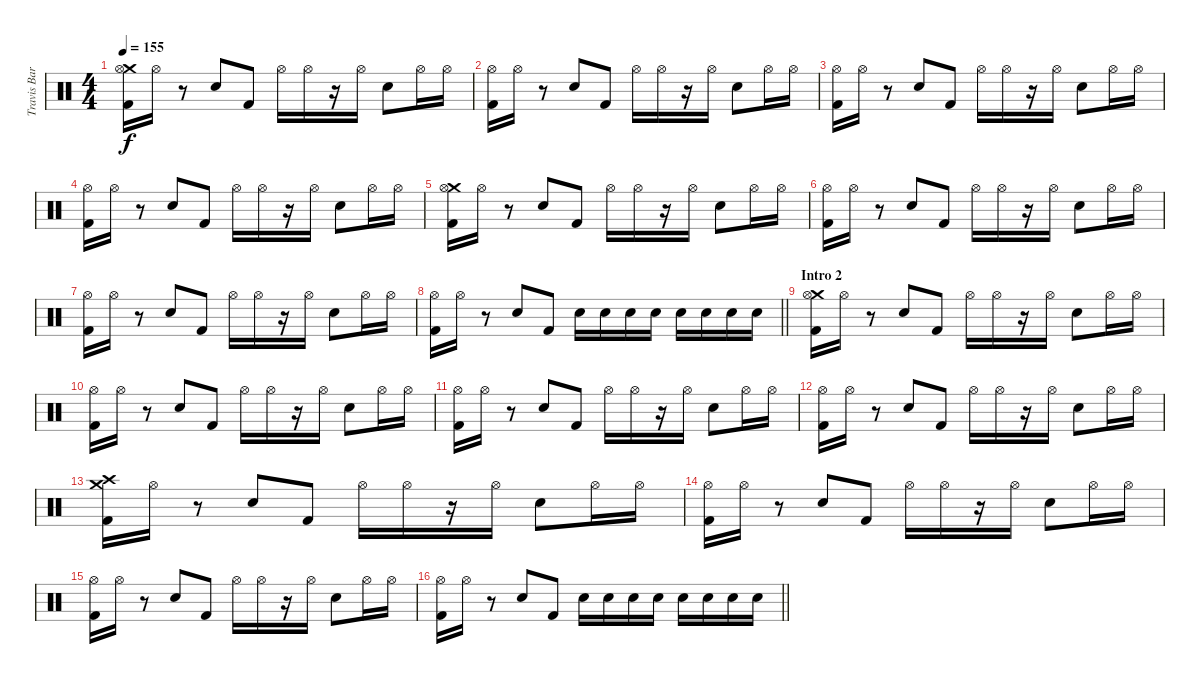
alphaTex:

\track ("Travis Barker Drums" "Travis Bar") {mute instrument percussion}
\staff {score}
\articulation defaults
\ts (4 4)
\tempo 155
\clef neutral
\ks c
("Crash medium (hit)" "Hi-Hat (open)" "Kick (hit) 2").16{dy f} "Hi-Hat (open)".16 r.8 "Electric Snare (hit)".8 "Kick (hit) 2".8 "Hi-Hat (open)".16 "Hi-Hat (open)".16 r.16 "Hi-Hat (open)".16 "Electric Snare (hit)".8 "Hi-Hat (open)".16 "Hi-Hat (open)".16 |
("Hi-Hat (open)" "Kick (hit) 2").16 "Hi-Hat (open)".16 r.8 "Electric Snare (hit)".8 "Kick (hit) 2".8 "Hi-Hat (open)".16 "Hi-Hat (open)".16 r.16 "Hi-Hat (open)".16 "Electric Snare (hit)".8 "Hi-Hat (open)".16 "Hi-Hat (open)".16 |
("Hi-Hat (open)" "Kick (hit) 2").16 "Hi-Hat (open)".16 r.8 "Electric Snare (hit)".8 "Kick (hit) 2".8 "Hi-Hat (open)".16 "Hi-Hat (open)".16 r.16 "Hi-Hat (open)".16 "Electric Snare (hit)".8 "Hi-Hat (open)".16 "Hi-Hat (open)".16 |
("Hi-Hat (open)" "Kick (hit) 2").16 "Hi-Hat (open)".16 r.8 "Electric Snare (hit)".8 "Kick (hit) 2".8 "Hi-Hat (open)".16 "Hi-Hat (open)".16 r.16 "Hi-Hat (open)".16 "Electric Snare (hit)".8 "Hi-Hat (open)".16 "Hi-Hat (open)".16 |
("Crash medium (hit)" "Hi-Hat (open)" "Kick (hit) 2").16 "Hi-Hat (open)".16 r.8 "Electric Snare (hit)".8 "Kick (hit) 2".8 "Hi-Hat (open)".16 "Hi-Hat (open)".16 r.16 "Hi-Hat (open)".16 "Electric Snare (hit)".8 "Hi-Hat (open)".16 "Hi-Hat (open)".16 |
("Hi-Hat (open)" "Kick (hit) 2").16 "Hi-Hat (open)".16 r.8 "Electric Snare (hit)".8 "Kick (hit) 2".8 "Hi-Hat (open)".16 "Hi-Hat (open)".16 r.16 "Hi-Hat (open)".16 "Electric Snare (hit)".8 "Hi-Hat (open)".16 "Hi-Hat (open)".16 |
("Hi-Hat (open)" "Kick (hit) 2").16 "Hi-Hat (open)".16 r.8 "Electric Snare (hit)".8 "Kick (hit) 2".8 "Hi-Hat (open)".16 "Hi-Hat (open)".16 r.16 "Hi-Hat (open)".16 "Electric Snare (hit)".8 "Hi-Hat (open)".16 "Hi-Hat (open)".16 |
\barLineRight lightlight
("Hi-Hat (open)" "Kick (hit) 2").16 "Hi-Hat (open)".16 r.8 "Electric Snare (hit)".8 "Kick (hit) 2".8 "Electric Snare (hit)".16 "Electric Snare (hit)".16 "Electric Snare (hit)".16 "Electric Snare (hit)".16 "Electric Snare (hit)".16 "Electric Snare (hit)".16 "Electric Snare (hit)".16 "Electric Snare (hit)".16 |
\section ("" "Intro 2")
("Crash medium (hit)" "Hi-Hat (open)" "Kick (hit) 2").16 "Hi-Hat (open)".16 r.8 "Electric Snare (hit)".8 "Kick (hit) 2".8 "Hi-Hat (open)".16 "Hi-Hat (open)".16 r.16 "Hi-Hat (open)".16 "Electric Snare (hit)".8 "Hi-Hat (open)".16 "Hi-Hat (open)".16 |
("Hi-Hat (open)" "Kick (hit) 2").16 "Hi-Hat (open)".16 r.8 "Electric Snare (hit)".8 "Kick (hit) 2".8 "Hi-Hat (open)".16 "Hi-Hat (open)".16 r.16 "Hi-Hat (open)".16 "Electric Snare (hit)".8 "Hi-Hat (open)".16 "Hi-Hat (open)".16 |
("Hi-Hat (open)" "Kick (hit) 2").16 "Hi-Hat (open)".16 r.8 "Electric Snare (hit)".8 "Kick (hit) 2".8 "Hi-Hat (open)".16 "Hi-Hat (open)".16 r.16 "Hi-Hat (open)".16 "Electric Snare (hit)".8 "Hi-Hat (open)".16 "Hi-Hat (open)".16 |
("Hi-Hat (open)" "Kick (hit) 2").16 "Hi-Hat (open)".16 r.8 "Electric Snare (hit)".8 "Kick (hit) 2".8 "Hi-Hat (open)".16 "Hi-Hat (open)".16 r.16 "Hi-Hat (open)".16 "Electric Snare (hit)".8 "Hi-Hat (open)".16 "Hi-Hat (open)".16 |
("Crash medium (hit)" "Crash high (hit)" "Kick (hit) 2").16 "Hi-Hat (open)".16 r.8 "Electric Snare (hit)".8 "Kick (hit) 2".8 "Hi-Hat (open)".16 "Hi-Hat (open)".16 r.16 "Hi-Hat (open)".16 "Electric Snare (hit)".8 "Hi-Hat (open)".16 "Hi-Hat (open)".16 |
("Hi-Hat (open)" "Kick (hit) 2").16 "Hi-Hat (open)".16 r.8 "Electric Snare (hit)".8 "Kick (hit) 2".8 "Hi-Hat (open)".16 "Hi-Hat (open)".16 r.16 "Hi-Hat (open)".16 "Electric Snare (hit)".8 "Hi-Hat (open)".16 "Hi-Hat (open)".16 |
("Hi-Hat (open)" "Kick (hit) 2").16 "Hi-Hat (open)".16 r.8 "Electric Snare (hit)".8 "Kick (hit) 2".8 "Hi-Hat (open)".16 "Hi-Hat (open)".16 r.16 "Hi-Hat (open)".16 "Electric Snare (hit)".8 "Hi-Hat (open)".16 "Hi-Hat (open)".16 |
\barLineRight lightlight
("Hi-Hat (open)" "Kick (hit) 2").16 "Hi-Hat (open)".16 r.8 "Electric Snare (hit)".8 "Kick (hit) 2".8 "Electric Snare (hit)".16 "Electric Snare (hit)".16 "Electric Snare (hit)".16 "Electric Snare (hit)".16 "Electric Snare (hit)".16 "Electric Snare (hit)".16 "Electric Snare (hit)".16 "Electric Snare (hit)".16
